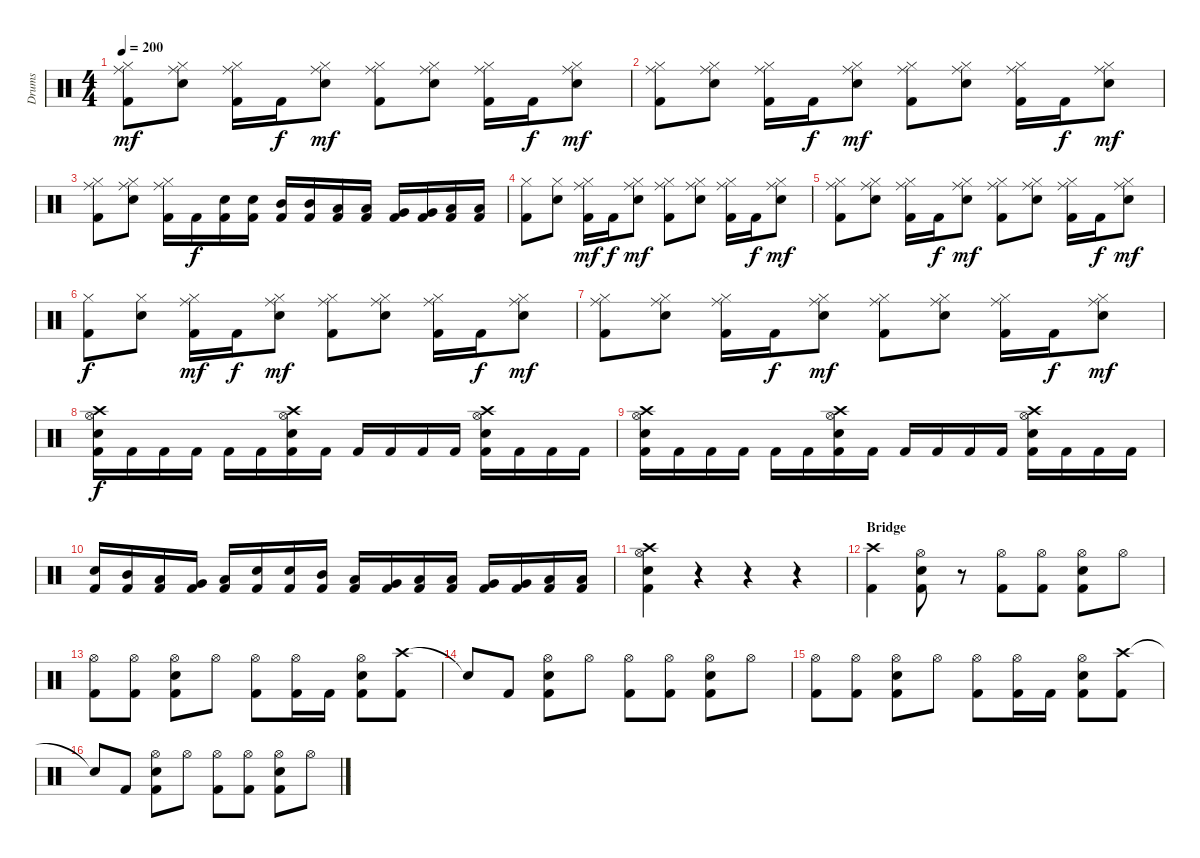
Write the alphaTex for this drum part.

\track ("Drums" "Drums") {instrument percussion}
\staff {score}
\articulation defaults
\ts (4 4)
\tempo 200
\clef neutral
\ks c
("Hi-Hat (closed)" "Ride (middle)" "Kick (hit) 2").8{dy mf} ("Hi-Hat (closed)" "Ride (middle)" "Snare (hit) 2").8 ("Hi-Hat (closed)" "Ride (middle)" "Kick (hit) 2").16 "Kick (hit) 2".16{dy f} ("Hi-Hat (closed)" "Ride (middle)" "Snare (hit) 2").8{dy mf} ("Hi-Hat (closed)" "Ride (middle)" "Kick (hit) 2").8 ("Hi-Hat (closed)" "Ride (middle)" "Snare (hit) 2").8 ("Hi-Hat (closed)" "Ride (middle)" "Kick (hit) 2").16 "Kick (hit) 2".16{dy f} ("Hi-Hat (closed)" "Ride (middle)" "Snare (hit) 2").8{dy mf} |
("Hi-Hat (closed)" "Ride (middle)" "Kick (hit) 2").8 ("Hi-Hat (closed)" "Ride (middle)" "Snare (hit) 2").8 ("Hi-Hat (closed)" "Ride (middle)" "Kick (hit) 2").16 "Kick (hit) 2".16{dy f} ("Hi-Hat (closed)" "Ride (middle)" "Snare (hit) 2").8{dy mf} ("Hi-Hat (closed)" "Ride (middle)" "Kick (hit) 2").8 ("Hi-Hat (closed)" "Ride (middle)" "Snare (hit) 2").8 ("Hi-Hat (closed)" "Ride (middle)" "Kick (hit) 2").16 "Kick (hit) 2".16{dy f} ("Hi-Hat (closed)" "Ride (middle)" "Snare (hit) 2").8{dy mf} |
("Hi-Hat (closed)" "Ride (middle)" "Kick (hit) 2").8 ("Hi-Hat (closed)" "Ride (middle)" "Snare (hit) 2").8 ("Hi-Hat (closed)" "Ride (middle)" "Kick (hit) 2").16 "Kick (hit) 2".16{dy f} ("Snare (hit) 2" "Kick (hit) 2").16 ("Snare (hit) 2" "Kick (hit) 2").16 ("Mid Tom (hit)" "Kick (hit) 2").16 ("Mid Tom (hit)" "Kick (hit) 2").16 ("Low Tom (hit)" "Kick (hit) 2").16 ("Low Tom (hit)" "Kick (hit) 2").16 ("Very Low Tom (hit)" "Kick (hit) 2").16 ("Very Low Tom (hit)" "Kick (hit) 2").16 ("Low Floor Tom (hit)" "Kick (hit) 2").16 ("Low Floor Tom (hit)" "Kick (hit) 2").16 |
("Hi-Hat (closed)" "Kick (hit) 2").8 ("Hi-Hat (closed)" "Snare (hit) 2").8 ("Hi-Hat (closed)" "Ride (middle)" "Kick (hit) 2").16{dy mf} "Kick (hit) 2".16{dy f} ("Hi-Hat (closed)" "Ride (middle)" "Snare (hit) 2").8{dy mf} ("Hi-Hat (closed)" "Ride (middle)" "Kick (hit) 2").8 ("Hi-Hat (closed)" "Ride (middle)" "Snare (hit) 2").8 ("Hi-Hat (closed)" "Ride (middle)" "Kick (hit) 2").16 "Kick (hit) 2".16{dy f} ("Hi-Hat (closed)" "Ride (middle)" "Snare (hit) 2").8{dy mf} |
("Hi-Hat (closed)" "Ride (middle)" "Kick (hit) 2").8 ("Hi-Hat (closed)" "Ride (middle)" "Snare (hit) 2").8 ("Hi-Hat (closed)" "Ride (middle)" "Kick (hit) 2").16 "Kick (hit) 2".16{dy f} ("Hi-Hat (closed)" "Ride (middle)" "Snare (hit) 2").8{dy mf} ("Hi-Hat (closed)" "Ride (middle)" "Kick (hit) 2").8 ("Hi-Hat (closed)" "Ride (middle)" "Snare (hit) 2").8 ("Hi-Hat (closed)" "Ride (middle)" "Kick (hit) 2").16 "Kick (hit) 2".16{dy f} ("Hi-Hat (closed)" "Ride (middle)" "Snare (hit) 2").8{dy mf} |
("Hi-Hat (closed)" "Kick (hit) 2").8{dy f} ("Hi-Hat (closed)" "Snare (hit) 2").8 ("Hi-Hat (closed)" "Ride (middle)" "Kick (hit) 2").16{dy mf} "Kick (hit) 2".16{dy f} ("Hi-Hat (closed)" "Ride (middle)" "Snare (hit) 2").8{dy mf} ("Hi-Hat (closed)" "Ride (middle)" "Kick (hit) 2").8 ("Hi-Hat (closed)" "Ride (middle)" "Snare (hit) 2").8 ("Hi-Hat (closed)" "Ride (middle)" "Kick (hit) 2").16 "Kick (hit) 2".16{dy f} ("Hi-Hat (closed)" "Ride (middle)" "Snare (hit) 2").8{dy mf} |
("Hi-Hat (closed)" "Ride (middle)" "Kick (hit) 2").8 ("Hi-Hat (closed)" "Ride (middle)" "Snare (hit) 2").8 ("Hi-Hat (closed)" "Ride (middle)" "Kick (hit) 2").16 "Kick (hit) 2".16{dy f} ("Hi-Hat (closed)" "Ride (middle)" "Snare (hit) 2").8{dy mf} ("Hi-Hat (closed)" "Ride (middle)" "Kick (hit) 2").8 ("Hi-Hat (closed)" "Ride (middle)" "Snare (hit) 2").8 ("Hi-Hat (closed)" "Ride (middle)" "Kick (hit) 2").16 "Kick (hit) 2".16{dy f} ("Hi-Hat (closed)" "Ride (middle)" "Snare (hit) 2").8{dy mf} |
("Crash high (hit)" "Hi-Hat (open)" "Snare (hit) 2" "Kick (hit) 2").16{dy f} "Kick (hit) 2".16 "Kick (hit) 2".16 "Kick (hit) 2".16 "Kick (hit) 2".16 "Kick (hit) 2".16 ("Crash high (hit)" "Hi-Hat (open)" "Snare (hit) 2" "Kick (hit) 2").16 "Kick (hit) 2".16 "Kick (hit) 2".16 "Kick (hit) 2".16 "Kick (hit) 2".16 "Kick (hit) 2".16 ("Crash high (hit)" "Hi-Hat (open)" "Snare (hit) 2" "Kick (hit) 2").16 "Kick (hit) 2".16 "Kick (hit) 2".16 "Kick (hit) 2".16 |
("Crash high (hit)" "Hi-Hat (open)" "Snare (hit) 2" "Kick (hit) 2").16 "Kick (hit) 2".16 "Kick (hit) 2".16 "Kick (hit) 2".16 "Kick (hit) 2".16 "Kick (hit) 2".16 ("Crash high (hit)" "Hi-Hat (open)" "Snare (hit) 2" "Kick (hit) 2").16 "Kick (hit) 2".16 "Kick (hit) 2".16 "Kick (hit) 2".16 "Kick (hit) 2".16 "Kick (hit) 2".16 ("Crash high (hit)" "Hi-Hat (open)" "Snare (hit) 2" "Kick (hit) 2").16 "Kick (hit) 2".16 "Kick (hit) 2".16 "Kick (hit) 2".16 |
("Snare (hit) 2" "Kick (hit) 2").16 ("Mid Tom (hit)" "Kick (hit) 2").16 ("Low Tom (hit)" "Kick (hit) 2").16 ("Very Low Tom (hit)" "Kick (hit) 2").16 ("Low Floor Tom (hit)" "Kick (hit) 2").16 ("Snare (hit) 2" "Kick (hit) 2").16 ("Snare (hit) 2" "Kick (hit) 2").16 ("Mid Tom (hit)" "Kick (hit) 2").16 ("Low Tom (hit)" "Kick (hit) 2").16 ("Very Low Tom (hit)" "Kick (hit) 2").16 ("Low Tom (hit)" "Kick (hit) 2").16 ("Low Tom (hit)" "Kick (hit) 2").16 ("Very Low Tom (hit)" "Kick (hit) 2").16 ("Very Low Tom (hit)" "Kick (hit) 2").16 ("Low Floor Tom (hit)" "Kick (hit) 2").16 ("Low Floor Tom (hit)" "Kick (hit) 2").16 |
("Crash high (hit)" "Hi-Hat (open)" "Snare (hit) 2" "Kick (hit) 2").4 r.4 r.4 r.4 |
\section ("" "Bridge")
("Crash high (hit)" "Kick (hit) 2").4 ("Hi-Hat (open)" "Snare (hit) 2" "Kick (hit) 2").8 r.8 ("Hi-Hat (open)" "Kick (hit) 2").8 ("Hi-Hat (open)" "Kick (hit) 2").8 ("Hi-Hat (open)" "Snare (hit) 2" "Kick (hit) 2").8 "Hi-Hat (open)".8 |
("Hi-Hat (open)" "Kick (hit) 2").8 ("Hi-Hat (open)" "Kick (hit) 2").8 ("Hi-Hat (open)" "Snare (hit) 2" "Kick (hit) 2").8 "Hi-Hat (open)".8 ("Hi-Hat (open)" "Kick (hit) 2").8 ("Hi-Hat (open)" "Kick (hit) 2").16 "Kick (hit) 2".16 ("Hi-Hat (open)" "Snare (hit) 2" "Kick (hit) 2").8 ("Crash high (hit)" "Kick (hit) 2").8 |
"Snare (hit)"{t}.8 "Kick (hit) 2".8 ("Hi-Hat (open)" "Snare (hit) 2" "Kick (hit) 2").8 "Hi-Hat (open)".8 ("Hi-Hat (open)" "Kick (hit) 2").8 ("Hi-Hat (open)" "Kick (hit) 2").8 ("Hi-Hat (open)" "Snare (hit) 2" "Kick (hit) 2").8 "Hi-Hat (open)".8 |
("Hi-Hat (open)" "Kick (hit) 2").8 ("Hi-Hat (open)" "Kick (hit) 2").8 ("Hi-Hat (open)" "Snare (hit) 2" "Kick (hit) 2").8 "Hi-Hat (open)".8 ("Hi-Hat (open)" "Kick (hit) 2").8 ("Hi-Hat (open)" "Kick (hit) 2").16 "Kick (hit) 2".16 ("Hi-Hat (open)" "Snare (hit) 2" "Kick (hit) 2").8 ("Crash high (hit)" "Kick (hit) 2").8 |
"Snare (hit)"{t}.8 "Kick (hit) 2".8 ("Hi-Hat (open)" "Snare (hit) 2" "Kick (hit) 2").8 "Hi-Hat (open)".8 ("Hi-Hat (open)" "Kick (hit) 2").8 ("Hi-Hat (open)" "Kick (hit) 2").8 ("Hi-Hat (open)" "Snare (hit) 2" "Kick (hit) 2").8 "Hi-Hat (open)".8
